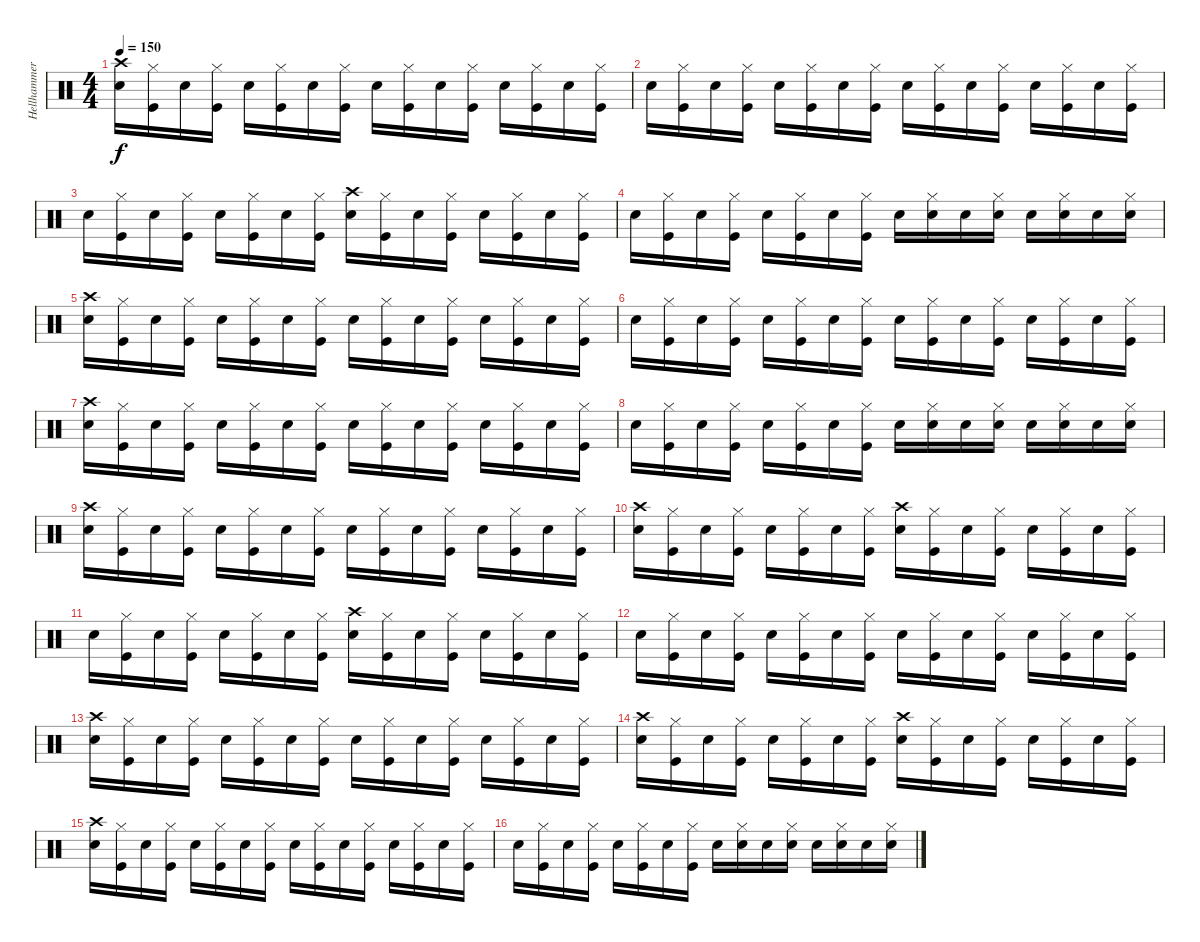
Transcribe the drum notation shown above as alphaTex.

\track ("Hellhammer" "Hellhammer") {instrument percussion}
\staff {score}
\articulation defaults
\ts (4 4)
\tempo 150
\clef neutral
\ks c
("Snare (hit) 2" "Crash high (hit)").16{dy f} ("Kick (hit)" "Hi-Hat (closed)").16 "Snare (hit) 2".16 ("Kick (hit)" "Hi-Hat (closed)").16 "Snare (hit) 2".16 ("Kick (hit)" "Hi-Hat (closed)").16 "Snare (hit) 2".16 ("Kick (hit)" "Hi-Hat (closed)").16 "Snare (hit) 2".16 ("Kick (hit)" "Hi-Hat (closed)").16 "Snare (hit) 2".16 ("Kick (hit)" "Hi-Hat (closed)").16 "Snare (hit) 2".16 ("Kick (hit)" "Hi-Hat (closed)").16 "Snare (hit) 2".16 ("Kick (hit)" "Hi-Hat (closed)").16 |
"Snare (hit) 2".16 ("Kick (hit)" "Hi-Hat (closed)").16 "Snare (hit) 2".16 ("Kick (hit)" "Hi-Hat (closed)").16 "Snare (hit) 2".16 ("Kick (hit)" "Hi-Hat (closed)").16 "Snare (hit) 2".16 ("Kick (hit)" "Hi-Hat (closed)").16 "Snare (hit) 2".16 ("Kick (hit)" "Hi-Hat (closed)").16 "Snare (hit) 2".16 ("Kick (hit)" "Hi-Hat (closed)").16 "Snare (hit) 2".16 ("Kick (hit)" "Hi-Hat (closed)").16 "Snare (hit) 2".16 ("Kick (hit)" "Hi-Hat (closed)").16 |
"Snare (hit) 2".16 ("Kick (hit)" "Hi-Hat (closed)").16 "Snare (hit) 2".16 ("Kick (hit)" "Hi-Hat (closed)").16 "Snare (hit) 2".16 ("Kick (hit)" "Hi-Hat (closed)").16 "Snare (hit) 2".16 ("Kick (hit)" "Hi-Hat (closed)").16 ("Snare (hit) 2" "Crash high (hit)").16 ("Kick (hit)" "Hi-Hat (closed)").16 "Snare (hit) 2".16 ("Kick (hit)" "Hi-Hat (closed)").16 "Snare (hit) 2".16 ("Kick (hit)" "Hi-Hat (closed)").16 "Snare (hit) 2".16 ("Kick (hit)" "Hi-Hat (closed)").16 |
"Snare (hit) 2".16 ("Kick (hit)" "Hi-Hat (closed)").16 "Snare (hit) 2".16 ("Kick (hit)" "Hi-Hat (closed)").16 "Snare (hit) 2".16 ("Kick (hit)" "Hi-Hat (closed)").16 "Snare (hit) 2".16 ("Kick (hit)" "Hi-Hat (closed)").16 "Snare (hit) 2".16 ("Snare (hit) 2" "Hi-Hat (closed)").16 "Snare (hit) 2".16 ("Snare (hit) 2" "Hi-Hat (closed)").16 "Snare (hit) 2".16 ("Snare (hit) 2" "Hi-Hat (closed)").16 "Snare (hit) 2".16 ("Snare (hit) 2" "Hi-Hat (closed)").16 |
("Snare (hit) 2" "Crash high (hit)").16 ("Kick (hit)" "Hi-Hat (closed)").16 "Snare (hit) 2".16 ("Kick (hit)" "Hi-Hat (closed)").16 "Snare (hit) 2".16 ("Kick (hit)" "Hi-Hat (closed)").16 "Snare (hit) 2".16 ("Kick (hit)" "Hi-Hat (closed)").16 "Snare (hit) 2".16 ("Kick (hit)" "Hi-Hat (closed)").16 "Snare (hit) 2".16 ("Kick (hit)" "Hi-Hat (closed)").16 "Snare (hit) 2".16 ("Kick (hit)" "Hi-Hat (closed)").16 "Snare (hit) 2".16 ("Kick (hit)" "Hi-Hat (closed)").16 |
"Snare (hit) 2".16 ("Kick (hit)" "Hi-Hat (closed)").16 "Snare (hit) 2".16 ("Kick (hit)" "Hi-Hat (closed)").16 "Snare (hit) 2".16 ("Kick (hit)" "Hi-Hat (closed)").16 "Snare (hit) 2".16 ("Kick (hit)" "Hi-Hat (closed)").16 "Snare (hit) 2".16 ("Kick (hit)" "Hi-Hat (closed)").16 "Snare (hit) 2".16 ("Kick (hit)" "Hi-Hat (closed)").16 "Snare (hit) 2".16 ("Kick (hit)" "Hi-Hat (closed)").16 "Snare (hit) 2".16 ("Kick (hit)" "Hi-Hat (closed)").16 |
("Snare (hit) 2" "Crash high (hit)").16 ("Kick (hit)" "Hi-Hat (closed)").16 "Snare (hit) 2".16 ("Kick (hit)" "Hi-Hat (closed)").16 "Snare (hit) 2".16 ("Kick (hit)" "Hi-Hat (closed)").16 "Snare (hit) 2".16 ("Kick (hit)" "Hi-Hat (closed)").16 "Snare (hit) 2".16 ("Kick (hit)" "Hi-Hat (closed)").16 "Snare (hit) 2".16 ("Kick (hit)" "Hi-Hat (closed)").16 "Snare (hit) 2".16 ("Kick (hit)" "Hi-Hat (closed)").16 "Snare (hit) 2".16 ("Kick (hit)" "Hi-Hat (closed)").16 |
"Snare (hit) 2".16 ("Kick (hit)" "Hi-Hat (closed)").16 "Snare (hit) 2".16 ("Kick (hit)" "Hi-Hat (closed)").16 "Snare (hit) 2".16 ("Kick (hit)" "Hi-Hat (closed)").16 "Snare (hit) 2".16 ("Kick (hit)" "Hi-Hat (closed)").16 "Snare (hit) 2".16 ("Snare (hit) 2" "Hi-Hat (closed)").16 "Snare (hit) 2".16 ("Snare (hit) 2" "Hi-Hat (closed)").16 "Snare (hit) 2".16 ("Snare (hit) 2" "Hi-Hat (closed)").16 "Snare (hit) 2".16 ("Snare (hit) 2" "Hi-Hat (closed)").16 |
("Snare (hit) 2" "Crash high (hit)").16 ("Kick (hit)" "Hi-Hat (closed)").16 "Snare (hit) 2".16 ("Kick (hit)" "Hi-Hat (closed)").16 "Snare (hit) 2".16 ("Kick (hit)" "Hi-Hat (closed)").16 "Snare (hit) 2".16 ("Kick (hit)" "Hi-Hat (closed)").16 "Snare (hit) 2".16 ("Kick (hit)" "Hi-Hat (closed)").16 "Snare (hit) 2".16 ("Kick (hit)" "Hi-Hat (closed)").16 "Snare (hit) 2".16 ("Kick (hit)" "Hi-Hat (closed)").16 "Snare (hit) 2".16 ("Kick (hit)" "Hi-Hat (closed)").16 |
("Snare (hit) 2" "Crash high (hit)").16 ("Kick (hit)" "Hi-Hat (closed)").16 "Snare (hit) 2".16 ("Kick (hit)" "Hi-Hat (closed)").16 "Snare (hit) 2".16 ("Kick (hit)" "Hi-Hat (closed)").16 "Snare (hit) 2".16 ("Kick (hit)" "Hi-Hat (closed)").16 ("Snare (hit) 2" "Crash high (hit)").16 ("Kick (hit)" "Hi-Hat (closed)").16 "Snare (hit) 2".16 ("Kick (hit)" "Hi-Hat (closed)").16 "Snare (hit) 2".16 ("Kick (hit)" "Hi-Hat (closed)").16 "Snare (hit) 2".16 ("Kick (hit)" "Hi-Hat (closed)").16 |
"Snare (hit) 2".16 ("Kick (hit)" "Hi-Hat (closed)").16 "Snare (hit) 2".16 ("Kick (hit)" "Hi-Hat (closed)").16 "Snare (hit) 2".16 ("Kick (hit)" "Hi-Hat (closed)").16 "Snare (hit) 2".16 ("Kick (hit)" "Hi-Hat (closed)").16 ("Snare (hit) 2" "Crash high (hit)").16 ("Kick (hit)" "Hi-Hat (closed)").16 "Snare (hit) 2".16 ("Kick (hit)" "Hi-Hat (closed)").16 "Snare (hit) 2".16 ("Kick (hit)" "Hi-Hat (closed)").16 "Snare (hit) 2".16 ("Kick (hit)" "Hi-Hat (closed)").16 |
"Snare (hit) 2".16 ("Kick (hit)" "Hi-Hat (closed)").16 "Snare (hit) 2".16 ("Kick (hit)" "Hi-Hat (closed)").16 "Snare (hit) 2".16 ("Kick (hit)" "Hi-Hat (closed)").16 "Snare (hit) 2".16 ("Kick (hit)" "Hi-Hat (closed)").16 "Snare (hit) 2".16 ("Kick (hit)" "Hi-Hat (closed)").16 "Snare (hit) 2".16 ("Kick (hit)" "Hi-Hat (closed)").16 "Snare (hit) 2".16 ("Kick (hit)" "Hi-Hat (closed)").16 "Snare (hit) 2".16 ("Kick (hit)" "Hi-Hat (closed)").16 |
("Snare (hit) 2" "Crash high (hit)").16 ("Kick (hit)" "Hi-Hat (closed)").16 "Snare (hit) 2".16 ("Kick (hit)" "Hi-Hat (closed)").16 "Snare (hit) 2".16 ("Kick (hit)" "Hi-Hat (closed)").16 "Snare (hit) 2".16 ("Kick (hit)" "Hi-Hat (closed)").16 "Snare (hit) 2".16 ("Kick (hit)" "Hi-Hat (closed)").16 "Snare (hit) 2".16 ("Kick (hit)" "Hi-Hat (closed)").16 "Snare (hit) 2".16 ("Kick (hit)" "Hi-Hat (closed)").16 "Snare (hit) 2".16 ("Kick (hit)" "Hi-Hat (closed)").16 |
("Snare (hit) 2" "Crash high (hit)").16 ("Kick (hit)" "Hi-Hat (closed)").16 "Snare (hit) 2".16 ("Kick (hit)" "Hi-Hat (closed)").16 "Snare (hit) 2".16 ("Kick (hit)" "Hi-Hat (closed)").16 "Snare (hit) 2".16 ("Kick (hit)" "Hi-Hat (closed)").16 ("Snare (hit) 2" "Crash high (hit)").16 ("Kick (hit)" "Hi-Hat (closed)").16 "Snare (hit) 2".16 ("Kick (hit)" "Hi-Hat (closed)").16 "Snare (hit) 2".16 ("Kick (hit)" "Hi-Hat (closed)").16 "Snare (hit) 2".16 ("Kick (hit)" "Hi-Hat (closed)").16 |
("Snare (hit) 2" "Crash high (hit)").16 ("Kick (hit)" "Hi-Hat (closed)").16 "Snare (hit) 2".16 ("Kick (hit)" "Hi-Hat (closed)").16 "Snare (hit) 2".16 ("Kick (hit)" "Hi-Hat (closed)").16 "Snare (hit) 2".16 ("Kick (hit)" "Hi-Hat (closed)").16 "Snare (hit) 2".16 ("Kick (hit)" "Hi-Hat (closed)").16 "Snare (hit) 2".16 ("Kick (hit)" "Hi-Hat (closed)").16 "Snare (hit) 2".16 ("Kick (hit)" "Hi-Hat (closed)").16 "Snare (hit) 2".16 ("Kick (hit)" "Hi-Hat (closed)").16 |
"Snare (hit) 2".16 ("Kick (hit)" "Hi-Hat (closed)").16 "Snare (hit) 2".16 ("Kick (hit)" "Hi-Hat (closed)").16 "Snare (hit) 2".16 ("Kick (hit)" "Hi-Hat (closed)").16 "Snare (hit) 2".16 ("Kick (hit)" "Hi-Hat (closed)").16 "Snare (hit) 2".16 ("Snare (hit) 2" "Hi-Hat (closed)").16 "Snare (hit) 2".16 ("Snare (hit) 2" "Hi-Hat (closed)").16 "Snare (hit) 2".16 ("Snare (hit) 2" "Hi-Hat (closed)").16 "Snare (hit) 2".16 ("Snare (hit) 2" "Hi-Hat (closed)").16
